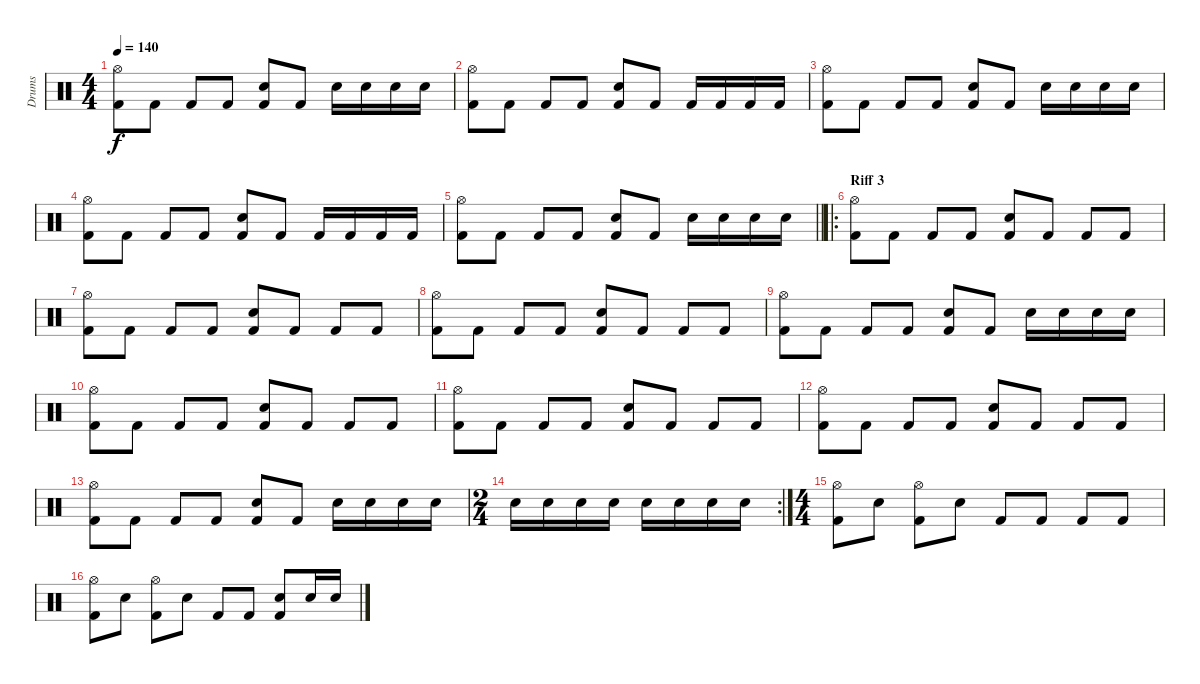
\track ("Drums" "Drums") {instrument percussion}
\staff {score}
\articulation defaults
\ts (4 4)
\tempo 140
\clef neutral
\ks c
("Hi-Hat (open)" "Kick (hit) 2").8{dy f} "Kick (hit) 2".8 "Kick (hit) 2".8 "Kick (hit) 2".8 ("Snare (hit) 2" "Kick (hit) 2").8 "Kick (hit) 2".8 "Snare (hit) 2".16 "Snare (hit) 2".16 "Snare (hit) 2".16 "Snare (hit) 2".16 |
("Hi-Hat (open)" "Kick (hit) 2").8 "Kick (hit) 2".8 "Kick (hit) 2".8 "Kick (hit) 2".8 ("Snare (hit) 2" "Kick (hit) 2").8 "Kick (hit) 2".8 "Kick (hit) 2".16 "Kick (hit) 2".16 "Kick (hit) 2".16 "Kick (hit) 2".16 |
("Hi-Hat (open)" "Kick (hit) 2").8 "Kick (hit) 2".8 "Kick (hit) 2".8 "Kick (hit) 2".8 ("Snare (hit) 2" "Kick (hit) 2").8 "Kick (hit) 2".8 "Snare (hit) 2".16 "Snare (hit) 2".16 "Snare (hit) 2".16 "Snare (hit) 2".16 |
("Hi-Hat (open)" "Kick (hit) 2").8 "Kick (hit) 2".8 "Kick (hit) 2".8 "Kick (hit) 2".8 ("Snare (hit) 2" "Kick (hit) 2").8 "Kick (hit) 2".8 "Kick (hit) 2".16 "Kick (hit) 2".16 "Kick (hit) 2".16 "Kick (hit) 2".16 |
\barLineRight lightlight
("Hi-Hat (open)" "Kick (hit) 2").8 "Kick (hit) 2".8 "Kick (hit) 2".8 "Kick (hit) 2".8 ("Snare (hit) 2" "Kick (hit) 2").8 "Kick (hit) 2".8 "Snare (hit) 2".16 "Snare (hit) 2".16 "Snare (hit) 2".16 "Snare (hit) 2".16 |
\ro
\section ("" "Riff 3")
("Hi-Hat (open)" "Kick (hit) 2").8 "Kick (hit) 2".8 "Kick (hit) 2".8 "Kick (hit) 2".8 ("Snare (hit) 2" "Kick (hit) 2").8 "Kick (hit) 2".8 "Kick (hit) 2".8 "Kick (hit) 2".8 |
("Hi-Hat (open)" "Kick (hit) 2").8 "Kick (hit) 2".8 "Kick (hit) 2".8 "Kick (hit) 2".8 ("Snare (hit) 2" "Kick (hit) 2").8 "Kick (hit) 2".8 "Kick (hit) 2".8 "Kick (hit) 2".8 |
("Hi-Hat (open)" "Kick (hit) 2").8 "Kick (hit) 2".8 "Kick (hit) 2".8 "Kick (hit) 2".8 ("Snare (hit) 2" "Kick (hit) 2").8 "Kick (hit) 2".8 "Kick (hit) 2".8 "Kick (hit) 2".8 |
("Hi-Hat (open)" "Kick (hit) 2").8 "Kick (hit) 2".8 "Kick (hit) 2".8 "Kick (hit) 2".8 ("Snare (hit) 2" "Kick (hit) 2").8 "Kick (hit) 2".8 "Snare (hit) 2".16 "Snare (hit) 2".16 "Snare (hit) 2".16 "Snare (hit) 2".16 |
("Hi-Hat (open)" "Kick (hit) 2").8 "Kick (hit) 2".8 "Kick (hit) 2".8 "Kick (hit) 2".8 ("Snare (hit) 2" "Kick (hit) 2").8 "Kick (hit) 2".8 "Kick (hit) 2".8 "Kick (hit) 2".8 |
("Hi-Hat (open)" "Kick (hit) 2").8 "Kick (hit) 2".8 "Kick (hit) 2".8 "Kick (hit) 2".8 ("Snare (hit) 2" "Kick (hit) 2").8 "Kick (hit) 2".8 "Kick (hit) 2".8 "Kick (hit) 2".8 |
("Hi-Hat (open)" "Kick (hit) 2").8 "Kick (hit) 2".8 "Kick (hit) 2".8 "Kick (hit) 2".8 ("Snare (hit) 2" "Kick (hit) 2").8 "Kick (hit) 2".8 "Kick (hit) 2".8 "Kick (hit) 2".8 |
("Hi-Hat (open)" "Kick (hit) 2").8 "Kick (hit) 2".8 "Kick (hit) 2".8 "Kick (hit) 2".8 ("Snare (hit) 2" "Kick (hit) 2").8 "Kick (hit) 2".8 "Snare (hit) 2".16 "Snare (hit) 2".16 "Snare (hit) 2".16 "Snare (hit) 2".16 |
\rc 2
\ts (2 4)
"Snare (hit) 2".16 "Snare (hit) 2".16 "Snare (hit) 2".16 "Snare (hit) 2".16 "Snare (hit) 2".16 "Snare (hit) 2".16 "Snare (hit) 2".16 "Snare (hit) 2".16 |
\ts (4 4)
("Hi-Hat (open)" "Kick (hit) 2").8 "Snare (hit) 2".8 ("Hi-Hat (open)" "Kick (hit) 2").8 "Snare (hit) 2".8 "Kick (hit) 2".8 "Kick (hit) 2".8 "Kick (hit) 2".8 "Kick (hit) 2".8 |
("Hi-Hat (open)" "Kick (hit) 2").8 "Snare (hit) 2".8 ("Hi-Hat (open)" "Kick (hit) 2").8 "Snare (hit) 2".8 "Kick (hit) 2".8 "Kick (hit) 2".8 ("Snare (hit) 2" "Kick (hit) 2").8 "Snare (hit) 2".16 "Snare (hit) 2".16
